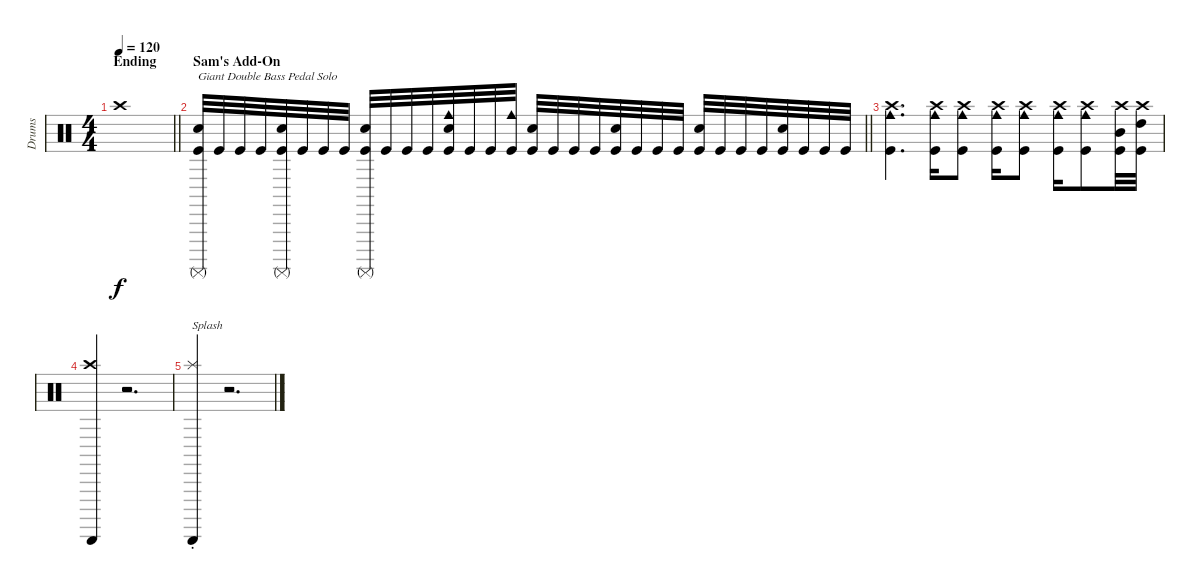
\track ("Drums" "Drums") {instrument percussion}
\staff {score}
\articulation defaults
\ts (4 4)
\section ("" "Ending")
\tempo 120
\clef neutral
\barLineRight lightlight
\ks c "Crash high (hit)".1{dy f}
|
\section ("" "Sam's Add-On")
\barLineRight lightlight
("Surdo (mute)" "Electric Snare (hit)" "Kick (hit)").32{txt "Giant Double Bass Pedal Solo"} "Kick (hit)".32 "Kick (hit)".32 "Kick (hit)".32 ("Surdo (mute)" "Electric Snare (hit)" "Kick (hit)").32 "Kick (hit)".32 "Kick (hit)".32 "Kick (hit)".32 ("Surdo (mute)" "Electric Snare (hit)" "Kick (hit)").32 "Kick (hit)".32 "Kick (hit)".32 "Kick (hit)".32 ("Cowbell medium (hit)" "Electric Snare (hit)" "Kick (hit)").32 "Kick (hit)".32 "Kick (hit)".32 ("Cowbell medium (hit)" "Kick (hit)").32 ("Electric Snare (hit)" "Kick (hit)").32 "Kick (hit)".32 "Kick (hit)".32 "Kick (hit)".32 ("Electric Snare (hit)" "Kick (hit)").32 "Kick (hit)".32 "Kick (hit)".32 "Kick (hit)".32 ("Electric Snare (hit)" "Kick (hit)").32 "Kick (hit)".32 "Kick (hit)".32 "Kick (hit)".32 ("Electric Snare (hit)" "Kick (hit)").32 "Kick (hit)".32 "Kick (hit)".32 "Kick (hit)".32 |
("Crash high (hit)" "Cowbell medium (hit)" "Kick (hit)").4{d} ("Crash high (hit)" "Cowbell medium (hit)" "Kick (hit)").16 ("Crash high (hit)" "Cowbell medium (hit)" "Kick (hit)").8 ("Crash high (hit)" "Cowbell medium (hit)" "Kick (hit)").16 ("Crash high (hit)" "Cowbell medium (hit)" "Kick (hit)").8 ("Crash high (hit)" "Cowbell medium (hit)" "Kick (hit)").16 ("Crash high (hit)" "Cowbell medium (hit)" "Kick (hit)").8 ("Crash high (hit)" "Mid Tom (hit)" "Kick (hit)").32 ("Crash high (hit)" "High Tom (hit)" "Kick (hit)").32 |
("Crash high (hit)" "Guiro (scrap-return)").4 r.2{d} |
("Splash (hit)"{st} "Guiro (scrap-return)").4{txt "Splash"} r.2{d}
